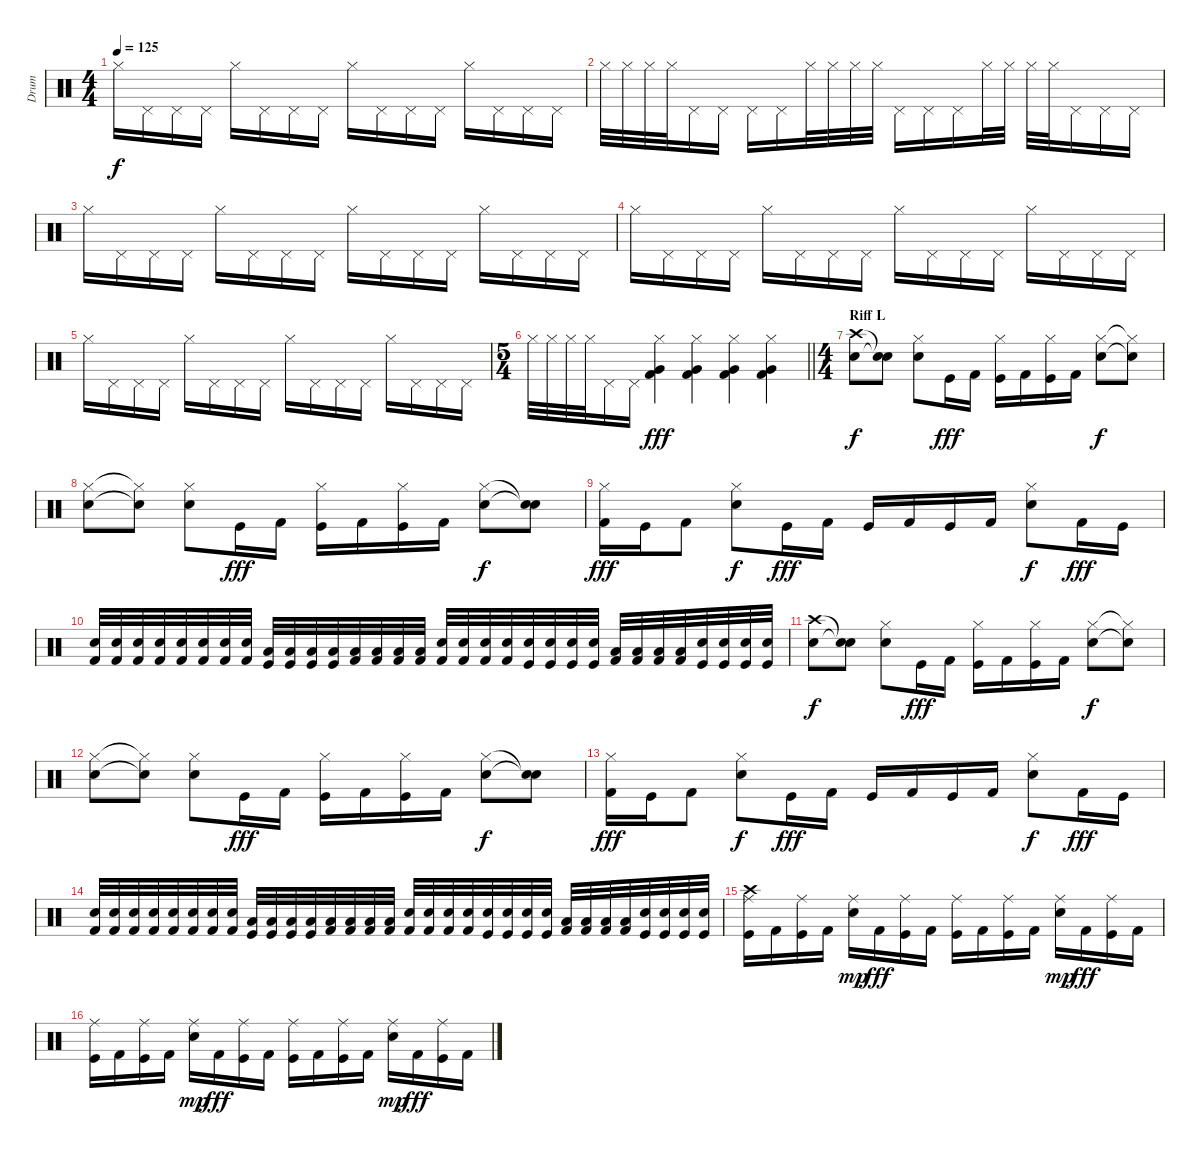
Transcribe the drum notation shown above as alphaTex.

\track ("Drum" "Drum") {instrument percussion}
\staff {score}
\articulation defaults
\ts (4 4)
\tempo 125
\clef neutral
\ks c "Hi-Hat (closed)".16{dy f} "Pedal Hi-Hat (hit)".16 "Pedal Hi-Hat (hit)".16 "Pedal Hi-Hat (hit)".16 "Hi-Hat (closed)".16 "Pedal Hi-Hat (hit)".16 "Pedal Hi-Hat (hit)".16 "Pedal Hi-Hat (hit)".16 "Hi-Hat (closed)".16 "Pedal Hi-Hat (hit)".16 "Pedal Hi-Hat (hit)".16 "Pedal Hi-Hat (hit)".16 "Hi-Hat (closed)".16 "Pedal Hi-Hat (hit)".16 "Pedal Hi-Hat (hit)".16 "Pedal Hi-Hat (hit)".16
|
"Hi-Hat (closed)".32 "Hi-Hat (closed)".32 "Hi-Hat (closed)".32 "Hi-Hat (closed)".32 "Pedal Hi-Hat (hit)".16 "Pedal Hi-Hat (hit)".16 "Pedal Hi-Hat (hit)".16 "Pedal Hi-Hat (hit)".16 "Hi-Hat (closed)".32 "Hi-Hat (closed)".32 "Hi-Hat (closed)".32 "Hi-Hat (closed)".32 "Pedal Hi-Hat (hit)".16 "Pedal Hi-Hat (hit)".16 "Pedal Hi-Hat (hit)".16 "Hi-Hat (closed)".32 "Hi-Hat (closed)".32 "Hi-Hat (closed)".32 "Hi-Hat (closed)".32 "Pedal Hi-Hat (hit)".16 "Pedal Hi-Hat (hit)".16 "Pedal Hi-Hat (hit)".16 |
"Hi-Hat (closed)".16 "Pedal Hi-Hat (hit)".16 "Pedal Hi-Hat (hit)".16 "Pedal Hi-Hat (hit)".16 "Hi-Hat (closed)".16 "Pedal Hi-Hat (hit)".16 "Pedal Hi-Hat (hit)".16 "Pedal Hi-Hat (hit)".16 "Hi-Hat (closed)".16 "Pedal Hi-Hat (hit)".16 "Pedal Hi-Hat (hit)".16 "Pedal Hi-Hat (hit)".16 "Hi-Hat (closed)".16 "Pedal Hi-Hat (hit)".16 "Pedal Hi-Hat (hit)".16 "Pedal Hi-Hat (hit)".16 |
"Hi-Hat (closed)".16 "Pedal Hi-Hat (hit)".16 "Pedal Hi-Hat (hit)".16 "Pedal Hi-Hat (hit)".16 "Hi-Hat (closed)".16 "Pedal Hi-Hat (hit)".16 "Pedal Hi-Hat (hit)".16 "Pedal Hi-Hat (hit)".16 "Hi-Hat (closed)".16 "Pedal Hi-Hat (hit)".16 "Pedal Hi-Hat (hit)".16 "Pedal Hi-Hat (hit)".16 "Hi-Hat (closed)".16 "Pedal Hi-Hat (hit)".16 "Pedal Hi-Hat (hit)".16 "Pedal Hi-Hat (hit)".16 |
"Hi-Hat (closed)".16 "Pedal Hi-Hat (hit)".16 "Pedal Hi-Hat (hit)".16 "Pedal Hi-Hat (hit)".16 "Hi-Hat (closed)".16 "Pedal Hi-Hat (hit)".16 "Pedal Hi-Hat (hit)".16 "Pedal Hi-Hat (hit)".16 "Hi-Hat (closed)".16 "Pedal Hi-Hat (hit)".16 "Pedal Hi-Hat (hit)".16 "Pedal Hi-Hat (hit)".16 "Hi-Hat (closed)".16 "Pedal Hi-Hat (hit)".16 "Pedal Hi-Hat (hit)".16 "Pedal Hi-Hat (hit)".16 |
\ts (5 4)
\barLineRight lightlight "Hi-Hat (closed)".32 "Hi-Hat (closed)".32 "Hi-Hat (closed)".32 "Hi-Hat (closed)".32 "Pedal Hi-Hat (hit)".16 "Pedal Hi-Hat (hit)".16
("Hi-Hat (closed)" "Very Low Tom (hit)" "Kick (hit) 2").4{dy fff} ("Hi-Hat (closed)" "Very Low Tom (hit)" "Kick (hit) 2").4 ("Hi-Hat (closed)" "Very Low Tom (hit)" "Kick (hit) 2").4 ("Hi-Hat (closed)" "Very Low Tom (hit)" "Kick (hit) 2").4 |
\ts (4 4)
\section ("" "Riff L")
("Crash high (hit)" "Snare (hit) 2").8{dy f volume 14} ("Snare (hit)"{t} "Snare (hit)"{t}).8 ("Hi-Hat (closed)" "Electric Snare (hit)").8 "Kick (hit)".16{dy fff} "Kick (hit) 2".16 ("Hi-Hat (closed)" "Kick (hit)").16 "Kick (hit) 2".16 ("Hi-Hat (closed)" "Kick (hit)").16 "Kick (hit) 2".16 ("Hi-Hat (closed)" "Electric Snare (hit)").8{dy f} ("Hi-Hat (closed)"{t} "Snare (hit)"{t}).8 |
("Hi-Hat (closed)" "Snare (hit) 2").8 ("Hi-Hat (closed)"{t} "Snare (hit)"{t}).8 ("Hi-Hat (closed)" "Electric Snare (hit)").8 "Kick (hit)".16{dy fff} "Kick (hit) 2".16 ("Hi-Hat (closed)" "Kick (hit)").16 "Kick (hit) 2".16 ("Hi-Hat (closed)" "Kick (hit)").16 "Kick (hit) 2".16 ("Hi-Hat (closed)" "Electric Snare (hit)").8{dy f} ("Snare (hit)"{t} "Snare (hit)"{t}).8 |
("Hi-Hat (closed)" "Kick (hit) 2").16{dy fff} "Kick (hit)".16 "Kick (hit) 2".8 ("Hi-Hat (closed)" "Electric Snare (hit)").8{dy f} "Kick (hit)".16{dy fff} "Kick (hit) 2".16 "Kick (hit)".16 "Kick (hit) 2".16 "Kick (hit)".16 "Kick (hit) 2".16 ("Hi-Hat (closed)" "Electric Snare (hit)").8{dy f} "Kick (hit) 2".16{dy fff} "Kick (hit)".16 |
("Electric Snare (hit)" "Kick (hit) 2").32 ("Electric Snare (hit)" "Kick (hit) 2").32 ("Electric Snare (hit)" "Kick (hit) 2").32 ("Electric Snare (hit)" "Kick (hit) 2").32 ("Electric Snare (hit)" "Kick (hit) 2").32 ("Electric Snare (hit)" "Kick (hit) 2").32 ("Electric Snare (hit)" "Kick (hit) 2").32 ("Electric Snare (hit)" "Kick (hit) 2").32 ("Low Tom (hit)" "Kick (hit)").32 ("Low Tom (hit)" "Kick (hit)").32 ("Low Tom (hit)" "Kick (hit)").32 ("Low Tom (hit)" "Kick (hit)").32 ("Low Tom (hit)" "Kick (hit) 2").32 ("Low Tom (hit)" "Kick (hit) 2").32 ("Low Tom (hit)" "Kick (hit) 2").32 ("Low Tom (hit)" "Kick (hit) 2").32 ("Electric Snare (hit)" "Kick (hit) 2").32 ("Electric Snare (hit)" "Kick (hit) 2").32 ("Electric Snare (hit)" "Kick (hit) 2").32 ("Electric Snare (hit)" "Kick (hit) 2").32 ("Electric Snare (hit)" "Kick (hit)").32 ("Electric Snare (hit)" "Kick (hit)").32 ("Electric Snare (hit)" "Kick (hit)").32 ("Electric Snare (hit)" "Kick (hit)").32 ("Low Tom (hit)" "Kick (hit) 2").32 ("Low Tom (hit)" "Kick (hit) 2").32 ("Low Tom (hit)" "Kick (hit) 2").32 ("Low Tom (hit)" "Kick (hit) 2").32 ("Electric Snare (hit)" "Kick (hit)").32 ("Electric Snare (hit)" "Kick (hit)").32 ("Electric Snare (hit)" "Kick (hit)").32 ("Electric Snare (hit)" "Kick (hit)").32 |
("Crash high (hit)" "Snare (hit) 2").8{dy f} ("Snare (hit)"{t} "Snare (hit)"{t}).8 ("Hi-Hat (closed)" "Electric Snare (hit)").8 "Kick (hit)".16{dy fff} "Kick (hit) 2".16 ("Hi-Hat (closed)" "Kick (hit)").16 "Kick (hit) 2".16 ("Hi-Hat (closed)" "Kick (hit)").16 "Kick (hit) 2".16 ("Hi-Hat (closed)" "Electric Snare (hit)").8{dy f} ("Hi-Hat (closed)"{t} "Snare (hit)"{t}).8 |
("Hi-Hat (closed)" "Snare (hit) 2").8 ("Hi-Hat (closed)"{t} "Snare (hit)"{t}).8 ("Hi-Hat (closed)" "Electric Snare (hit)").8 "Kick (hit)".16{dy fff} "Kick (hit) 2".16 ("Hi-Hat (closed)" "Kick (hit)").16 "Kick (hit) 2".16 ("Hi-Hat (closed)" "Kick (hit)").16 "Kick (hit) 2".16 ("Hi-Hat (closed)" "Electric Snare (hit)").8{dy f} ("Snare (hit)"{t} "Snare (hit)"{t}).8 |
("Hi-Hat (closed)" "Kick (hit) 2").16{dy fff} "Kick (hit)".16 "Kick (hit) 2".8 ("Hi-Hat (closed)" "Electric Snare (hit)").8{dy f} "Kick (hit)".16{dy fff} "Kick (hit) 2".16 "Kick (hit)".16 "Kick (hit) 2".16 "Kick (hit)".16 "Kick (hit) 2".16 ("Hi-Hat (closed)" "Electric Snare (hit)").8{dy f} "Kick (hit) 2".16{dy fff} "Kick (hit)".16 |
("Electric Snare (hit)" "Kick (hit) 2").32 ("Electric Snare (hit)" "Kick (hit) 2").32 ("Electric Snare (hit)" "Kick (hit) 2").32 ("Electric Snare (hit)" "Kick (hit) 2").32 ("Electric Snare (hit)" "Kick (hit) 2").32 ("Electric Snare (hit)" "Kick (hit) 2").32 ("Electric Snare (hit)" "Kick (hit) 2").32 ("Electric Snare (hit)" "Kick (hit) 2").32 ("Low Tom (hit)" "Kick (hit)").32 ("Low Tom (hit)" "Kick (hit)").32 ("Low Tom (hit)" "Kick (hit)").32 ("Low Tom (hit)" "Kick (hit)").32 ("Low Tom (hit)" "Kick (hit) 2").32 ("Low Tom (hit)" "Kick (hit) 2").32 ("Low Tom (hit)" "Kick (hit) 2").32 ("Low Tom (hit)" "Kick (hit) 2").32 ("Electric Snare (hit)" "Kick (hit) 2").32 ("Electric Snare (hit)" "Kick (hit) 2").32 ("Electric Snare (hit)" "Kick (hit) 2").32 ("Electric Snare (hit)" "Kick (hit) 2").32 ("Electric Snare (hit)" "Kick (hit)").32 ("Electric Snare (hit)" "Kick (hit)").32 ("Electric Snare (hit)" "Kick (hit)").32 ("Electric Snare (hit)" "Kick (hit)").32 ("Low Tom (hit)" "Kick (hit) 2").32 ("Low Tom (hit)" "Kick (hit) 2").32 ("Low Tom (hit)" "Kick (hit) 2").32 ("Low Tom (hit)" "Kick (hit) 2").32 ("Electric Snare (hit)" "Kick (hit)").32 ("Electric Snare (hit)" "Kick (hit)").32 ("Electric Snare (hit)" "Kick (hit)").32 ("Electric Snare (hit)" "Kick (hit)").32 |
("Crash high (hit)" "Ride (middle)" "Kick (hit)").16 "Kick (hit) 2".16 ("Ride (middle)" "Kick (hit)").16 "Kick (hit) 2".16 ("Ride (middle)" "Electric Snare (hit)").16{dy mp} "Kick (hit) 2".16{dy fff} ("Ride (middle)" "Kick (hit)").16 "Kick (hit) 2".16 ("Ride (middle)" "Kick (hit)").16 "Kick (hit) 2".16 ("Ride (middle)" "Kick (hit)").16 "Kick (hit) 2".16 ("Ride (middle)" "Electric Snare (hit)").16{dy mp} "Kick (hit) 2".16{dy fff} ("Ride (middle)" "Kick (hit)").16 "Kick (hit) 2".16 |
("Ride (middle)" "Kick (hit)").16 "Kick (hit) 2".16 ("Ride (middle)" "Kick (hit)").16 "Kick (hit) 2".16 ("Ride (middle)" "Electric Snare (hit)").16{dy mp} "Kick (hit) 2".16{dy fff} ("Ride (middle)" "Kick (hit)").16 "Kick (hit) 2".16 ("Ride (middle)" "Kick (hit)").16 "Kick (hit) 2".16 ("Ride (middle)" "Kick (hit)").16 "Kick (hit) 2".16 ("Ride (middle)" "Electric Snare (hit)").16{dy mp} "Kick (hit) 2".16{dy fff} ("Ride (middle)" "Kick (hit)").16 "Kick (hit) 2".16
